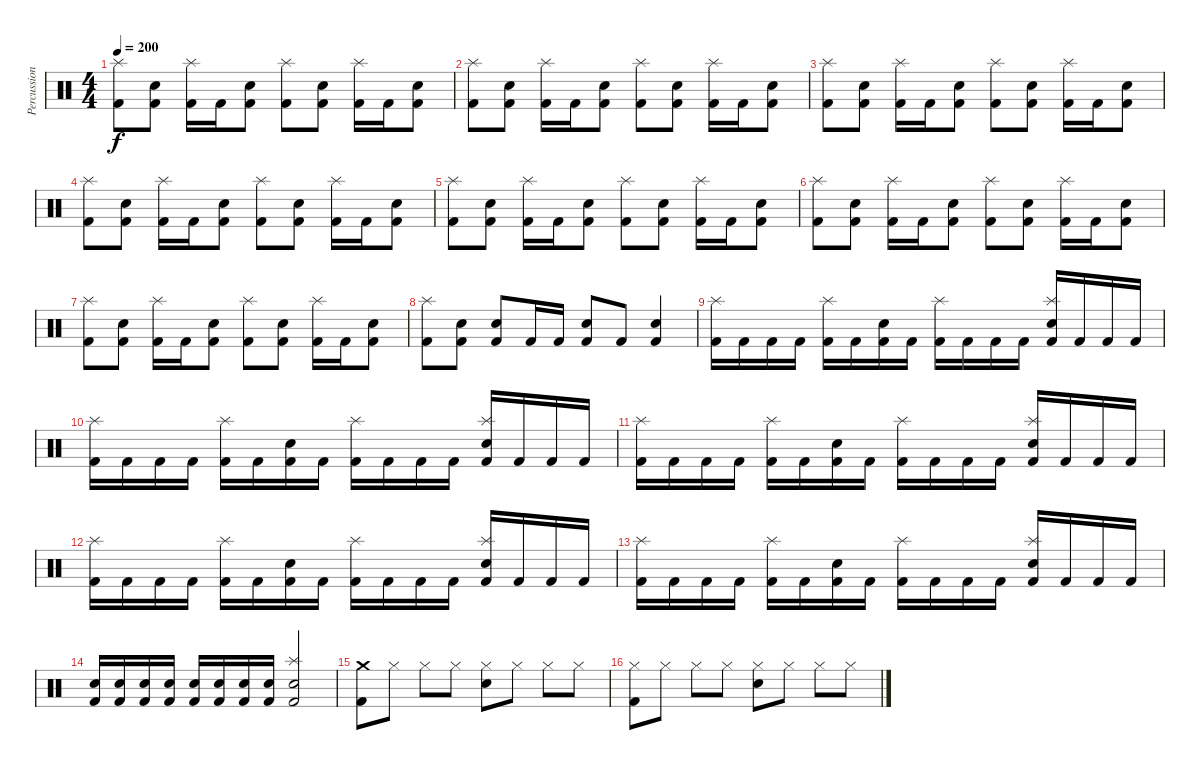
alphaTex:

\track ("Percussion" "Percussion") {instrument percussion}
\staff {score}
\articulation defaults
\ts (4 4)
\tempo 200
\clef neutral
\ks c
("Kick (hit) 2" "Splash (hit)").8{dy f} ("Kick (hit) 2" "Snare (hit) 2").8 ("Kick (hit) 2" "Splash (hit)").16 "Kick (hit) 2".16 ("Kick (hit) 2" "Snare (hit) 2").8 ("Kick (hit) 2" "Splash (hit)").8 ("Kick (hit) 2" "Snare (hit) 2").8 ("Kick (hit) 2" "Splash (hit)").16 "Kick (hit) 2".16 ("Kick (hit) 2" "Snare (hit) 2").8 |
("Kick (hit) 2" "Splash (hit)").8 ("Kick (hit) 2" "Snare (hit) 2").8 ("Kick (hit) 2" "Splash (hit)").16 "Kick (hit) 2".16 ("Kick (hit) 2" "Snare (hit) 2").8 ("Kick (hit) 2" "Splash (hit)").8 ("Kick (hit) 2" "Snare (hit) 2").8 ("Kick (hit) 2" "Splash (hit)").16 "Kick (hit) 2".16 ("Kick (hit) 2" "Snare (hit) 2").8 |
("Kick (hit) 2" "Splash (hit)").8 ("Kick (hit) 2" "Snare (hit) 2").8 ("Kick (hit) 2" "Splash (hit)").16 "Kick (hit) 2".16 ("Kick (hit) 2" "Snare (hit) 2").8 ("Kick (hit) 2" "Splash (hit)").8 ("Kick (hit) 2" "Snare (hit) 2").8 ("Kick (hit) 2" "Splash (hit)").16 "Kick (hit) 2".16 ("Kick (hit) 2" "Snare (hit) 2").8 |
("Kick (hit) 2" "Splash (hit)").8 ("Kick (hit) 2" "Snare (hit) 2").8 ("Kick (hit) 2" "Splash (hit)").16 "Kick (hit) 2".16 ("Kick (hit) 2" "Snare (hit) 2").8 ("Kick (hit) 2" "Splash (hit)").8 ("Kick (hit) 2" "Snare (hit) 2").8 ("Kick (hit) 2" "Splash (hit)").16 "Kick (hit) 2".16 ("Kick (hit) 2" "Snare (hit) 2").8 |
("Kick (hit) 2" "Splash (hit)").8 ("Kick (hit) 2" "Snare (hit) 2").8 ("Kick (hit) 2" "Splash (hit)").16 "Kick (hit) 2".16 ("Kick (hit) 2" "Snare (hit) 2").8 ("Kick (hit) 2" "Splash (hit)").8 ("Kick (hit) 2" "Snare (hit) 2").8 ("Kick (hit) 2" "Splash (hit)").16 "Kick (hit) 2".16 ("Kick (hit) 2" "Snare (hit) 2").8 |
("Kick (hit) 2" "Splash (hit)").8 ("Kick (hit) 2" "Snare (hit) 2").8 ("Kick (hit) 2" "Splash (hit)").16 "Kick (hit) 2".16 ("Kick (hit) 2" "Snare (hit) 2").8 ("Kick (hit) 2" "Splash (hit)").8 ("Kick (hit) 2" "Snare (hit) 2").8 ("Kick (hit) 2" "Splash (hit)").16 "Kick (hit) 2".16 ("Kick (hit) 2" "Snare (hit) 2").8 |
("Kick (hit) 2" "Splash (hit)").8 ("Kick (hit) 2" "Snare (hit) 2").8 ("Kick (hit) 2" "Splash (hit)").16 "Kick (hit) 2".16 ("Kick (hit) 2" "Snare (hit) 2").8 ("Kick (hit) 2" "Splash (hit)").8 ("Kick (hit) 2" "Snare (hit) 2").8 ("Kick (hit) 2" "Splash (hit)").16 "Kick (hit) 2".16 ("Kick (hit) 2" "Snare (hit) 2").8 |
("Kick (hit) 2" "Splash (hit)").8 ("Kick (hit) 2" "Snare (hit) 2").8 ("Kick (hit) 2" "Snare (hit) 2").8 "Kick (hit) 2".16 "Kick (hit) 2".16 ("Kick (hit) 2" "Snare (hit) 2").8 "Kick (hit) 2".8 ("Kick (hit) 2" "Snare (hit) 2").4 |
("Kick (hit) 2" "Splash (hit)").16 "Kick (hit) 2".16 "Kick (hit) 2".16 "Kick (hit) 2".16 ("Kick (hit) 2" "Splash (hit)").16 "Kick (hit) 2".16 ("Kick (hit) 2" "Snare (hit) 2").16 "Kick (hit) 2".16 ("Kick (hit) 2" "Splash (hit)").16 "Kick (hit) 2".16 "Kick (hit) 2".16 "Kick (hit) 2".16 ("Kick (hit) 2" "Splash (hit)" "Snare (hit) 2").16 "Kick (hit) 2".16 "Kick (hit) 2".16 "Kick (hit) 2".16 |
("Kick (hit) 2" "Splash (hit)").16 "Kick (hit) 2".16 "Kick (hit) 2".16 "Kick (hit) 2".16 ("Kick (hit) 2" "Splash (hit)").16 "Kick (hit) 2".16 ("Kick (hit) 2" "Snare (hit) 2").16 "Kick (hit) 2".16 ("Kick (hit) 2" "Splash (hit)").16 "Kick (hit) 2".16 "Kick (hit) 2".16 "Kick (hit) 2".16 ("Kick (hit) 2" "Splash (hit)" "Snare (hit) 2").16 "Kick (hit) 2".16 "Kick (hit) 2".16 "Kick (hit) 2".16 |
("Kick (hit) 2" "Splash (hit)").16 "Kick (hit) 2".16 "Kick (hit) 2".16 "Kick (hit) 2".16 ("Kick (hit) 2" "Splash (hit)").16 "Kick (hit) 2".16 ("Kick (hit) 2" "Snare (hit) 2").16 "Kick (hit) 2".16 ("Kick (hit) 2" "Splash (hit)").16 "Kick (hit) 2".16 "Kick (hit) 2".16 "Kick (hit) 2".16 ("Kick (hit) 2" "Splash (hit)" "Snare (hit) 2").16 "Kick (hit) 2".16 "Kick (hit) 2".16 "Kick (hit) 2".16 |
("Kick (hit) 2" "Splash (hit)").16 "Kick (hit) 2".16 "Kick (hit) 2".16 "Kick (hit) 2".16 ("Kick (hit) 2" "Splash (hit)").16 "Kick (hit) 2".16 ("Kick (hit) 2" "Snare (hit) 2").16 "Kick (hit) 2".16 ("Kick (hit) 2" "Splash (hit)").16 "Kick (hit) 2".16 "Kick (hit) 2".16 "Kick (hit) 2".16 ("Kick (hit) 2" "Splash (hit)" "Snare (hit) 2").16 "Kick (hit) 2".16 "Kick (hit) 2".16 "Kick (hit) 2".16 |
("Kick (hit) 2" "Splash (hit)").16 "Kick (hit) 2".16 "Kick (hit) 2".16 "Kick (hit) 2".16 ("Kick (hit) 2" "Splash (hit)").16 "Kick (hit) 2".16 ("Kick (hit) 2" "Snare (hit) 2").16 "Kick (hit) 2".16 ("Kick (hit) 2" "Splash (hit)").16 "Kick (hit) 2".16 "Kick (hit) 2".16 "Kick (hit) 2".16 ("Kick (hit) 2" "Splash (hit)" "Snare (hit) 2").16 "Kick (hit) 2".16 "Kick (hit) 2".16 "Kick (hit) 2".16 |
("Kick (hit) 2" "Snare (hit) 2").16 ("Kick (hit) 2" "Snare (hit) 2").16 ("Kick (hit) 2" "Snare (hit) 2").16 ("Kick (hit) 2" "Snare (hit) 2").16 ("Kick (hit) 2" "Snare (hit) 2").16 ("Kick (hit) 2" "Snare (hit) 2").16 ("Kick (hit) 2" "Snare (hit) 2").16 ("Kick (hit) 2" "Snare (hit) 2").16 ("Kick (hit) 2" "Snare (hit) 2" "Splash (hit)").2 |
("Kick (hit) 2" "Crash medium (hit)").8 "Hi-Hat (closed)".8 "Hi-Hat (closed)".8 "Hi-Hat (closed)".8 ("Snare (hit) 2" "Hi-Hat (closed)").8 "Hi-Hat (closed)".8 "Hi-Hat (closed)".8 "Hi-Hat (closed)".8 |
("Kick (hit) 2" "Hi-Hat (closed)").8 "Hi-Hat (closed)".8 "Hi-Hat (closed)".8 "Hi-Hat (closed)".8 ("Snare (hit) 2" "Hi-Hat (closed)").8 "Hi-Hat (closed)".8 "Hi-Hat (closed)".8 "Hi-Hat (closed)".8
